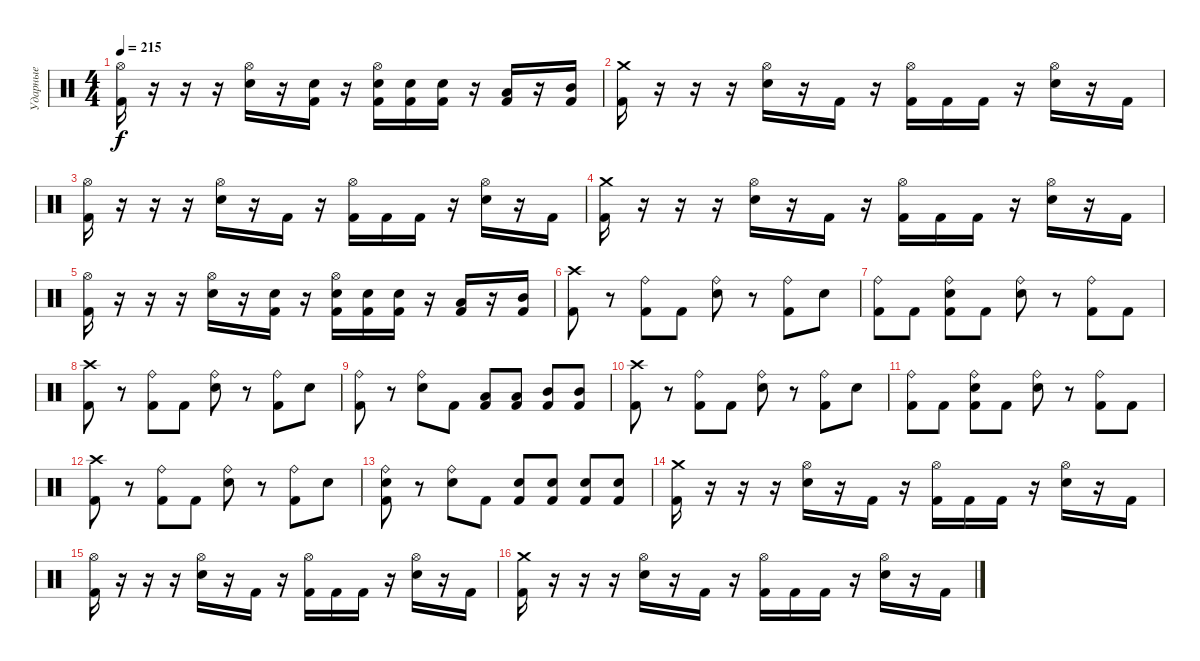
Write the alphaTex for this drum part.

\track ("Ударные" "Ударные") {instrument percussion}
\staff {score}
\articulation defaults
\ts (4 4)
\tempo 215
\clef neutral
\ks c
("Hi-Hat (open)" "Kick (hit) 2").16{dy f} r.16 r.16 r.16 ("Hi-Hat (open)" "Snare (hit) 2").16 r.16 ("Snare (hit) 2" "Kick (hit) 2").16 r.16 ("Hi-Hat (open)" "Snare (hit) 2" "Kick (hit) 2").16 ("Snare (hit) 2" "Kick (hit) 2").16 ("Snare (hit) 2" "Kick (hit) 2").16 r.16 ("Low Tom (hit)" "Kick (hit) 2").16 r.16 ("Mid Tom (hit)" "Kick (hit) 2").16 |
("Crash medium (hit)" "Kick (hit) 2").16 r.16 r.16 r.16 ("Hi-Hat (open)" "Snare (hit) 2").16 r.16 "Kick (hit) 2".16 r.16 ("Hi-Hat (open)" "Kick (hit) 2").16 "Kick (hit) 2".16 "Kick (hit) 2".16 r.16 ("Hi-Hat (open)" "Snare (hit) 2").16 r.16 "Kick (hit) 2".16 |
("Hi-Hat (open)" "Kick (hit) 2").16 r.16 r.16 r.16 ("Hi-Hat (open)" "Snare (hit) 2").16 r.16 "Kick (hit) 2".16 r.16 ("Hi-Hat (open)" "Kick (hit) 2").16 "Kick (hit) 2".16 "Kick (hit) 2".16 r.16 ("Hi-Hat (open)" "Snare (hit) 2").16 r.16 "Kick (hit) 2".16 |
("Crash medium (hit)" "Kick (hit) 2").16 r.16 r.16 r.16 ("Hi-Hat (open)" "Snare (hit) 2").16 r.16 "Kick (hit) 2".16 r.16 ("Hi-Hat (open)" "Kick (hit) 2").16 "Kick (hit) 2".16 "Kick (hit) 2".16 r.16 ("Hi-Hat (open)" "Snare (hit) 2").16 r.16 "Kick (hit) 2".16 |
("Hi-Hat (open)" "Kick (hit) 2").16 r.16 r.16 r.16 ("Hi-Hat (open)" "Snare (hit) 2").16 r.16 ("Snare (hit) 2" "Kick (hit) 2").16 r.16 ("Hi-Hat (open)" "Snare (hit) 2" "Kick (hit) 2").16 ("Snare (hit) 2" "Kick (hit) 2").16 ("Snare (hit) 2" "Kick (hit) 2").16 r.16 ("Low Tom (hit)" "Kick (hit) 2").16 r.16 ("Mid Tom (hit)" "Kick (hit) 2").16 |
("Crash high (hit)" "Kick (hit) 2").8 r.8 ("Ride (bell)" "Kick (hit) 2").8 "Kick (hit) 2".8 ("Ride (bell)" "Snare (hit) 2").8 r.8 ("Ride (bell)" "Kick (hit) 2").8 "Snare (hit) 2".8 |
("Ride (bell)" "Kick (hit) 2").8 "Kick (hit) 2".8 ("Ride (bell)" "Snare (hit) 2" "Kick (hit) 2").8 "Kick (hit) 2".8 ("Ride (bell)" "Snare (hit) 2").8 r.8 ("Ride (bell)" "Kick (hit) 2").8 "Kick (hit) 2".8 |
("Crash high (hit)" "Kick (hit) 2").8 r.8 ("Ride (bell)" "Kick (hit) 2").8 "Kick (hit) 2".8 ("Ride (bell)" "Snare (hit) 2").8 r.8 ("Ride (bell)" "Kick (hit) 2").8 "Snare (hit) 2".8 |
("Ride (bell)" "Kick (hit) 2").8 r.8 ("Ride (bell)" "Snare (hit) 2").8 "Kick (hit) 2".8 ("Low Tom (hit)" "Kick (hit) 2").8 ("Low Tom (hit)" "Kick (hit) 2").8 ("Mid Tom (hit)" "Kick (hit) 2").8 ("Mid Tom (hit)" "Kick (hit) 2").8 |
("Crash high (hit)" "Kick (hit) 2").8 r.8 ("Ride (bell)" "Kick (hit) 2").8 "Kick (hit) 2".8 ("Ride (bell)" "Snare (hit) 2").8 r.8 ("Ride (bell)" "Kick (hit) 2").8 "Snare (hit) 2".8 |
("Ride (bell)" "Kick (hit) 2").8 "Kick (hit) 2".8 ("Ride (bell)" "Snare (hit) 2" "Kick (hit) 2").8 "Kick (hit) 2".8 ("Ride (bell)" "Snare (hit) 2").8 r.8 ("Ride (bell)" "Kick (hit) 2").8 "Kick (hit) 2".8 |
("Crash high (hit)" "Kick (hit) 2").8 r.8 ("Ride (bell)" "Kick (hit) 2").8 "Kick (hit) 2".8 ("Ride (bell)" "Snare (hit) 2").8 r.8 ("Ride (bell)" "Kick (hit) 2").8 "Snare (hit) 2".8 |
("Ride (bell)" "Snare (hit) 2" "Kick (hit) 2").8 r.8 ("Ride (bell)" "Snare (hit) 2").8 "Kick (hit) 2".8 ("Snare (hit) 2" "Kick (hit) 2").8 ("Snare (hit) 2" "Kick (hit) 2").8 ("Snare (hit) 2" "Kick (hit) 2").8 ("Snare (hit) 2" "Kick (hit) 2").8 |
("Crash medium (hit)" "Kick (hit) 2").16 r.16 r.16 r.16 ("Hi-Hat (open)" "Snare (hit) 2").16 r.16 "Kick (hit) 2".16 r.16 ("Hi-Hat (open)" "Kick (hit) 2").16 "Kick (hit) 2".16 "Kick (hit) 2".16 r.16 ("Hi-Hat (open)" "Snare (hit) 2").16 r.16 "Kick (hit) 2".16 |
("Hi-Hat (open)" "Kick (hit) 2").16 r.16 r.16 r.16 ("Hi-Hat (open)" "Snare (hit) 2").16 r.16 "Kick (hit) 2".16 r.16 ("Hi-Hat (open)" "Kick (hit) 2").16 "Kick (hit) 2".16 "Kick (hit) 2".16 r.16 ("Hi-Hat (open)" "Snare (hit) 2").16 r.16 "Kick (hit) 2".16 |
("Crash medium (hit)" "Kick (hit) 2").16 r.16 r.16 r.16 ("Hi-Hat (open)" "Snare (hit) 2").16 r.16 "Kick (hit) 2".16 r.16 ("Hi-Hat (open)" "Kick (hit) 2").16 "Kick (hit) 2".16 "Kick (hit) 2".16 r.16 ("Hi-Hat (open)" "Snare (hit) 2").16 r.16 "Kick (hit) 2".16
